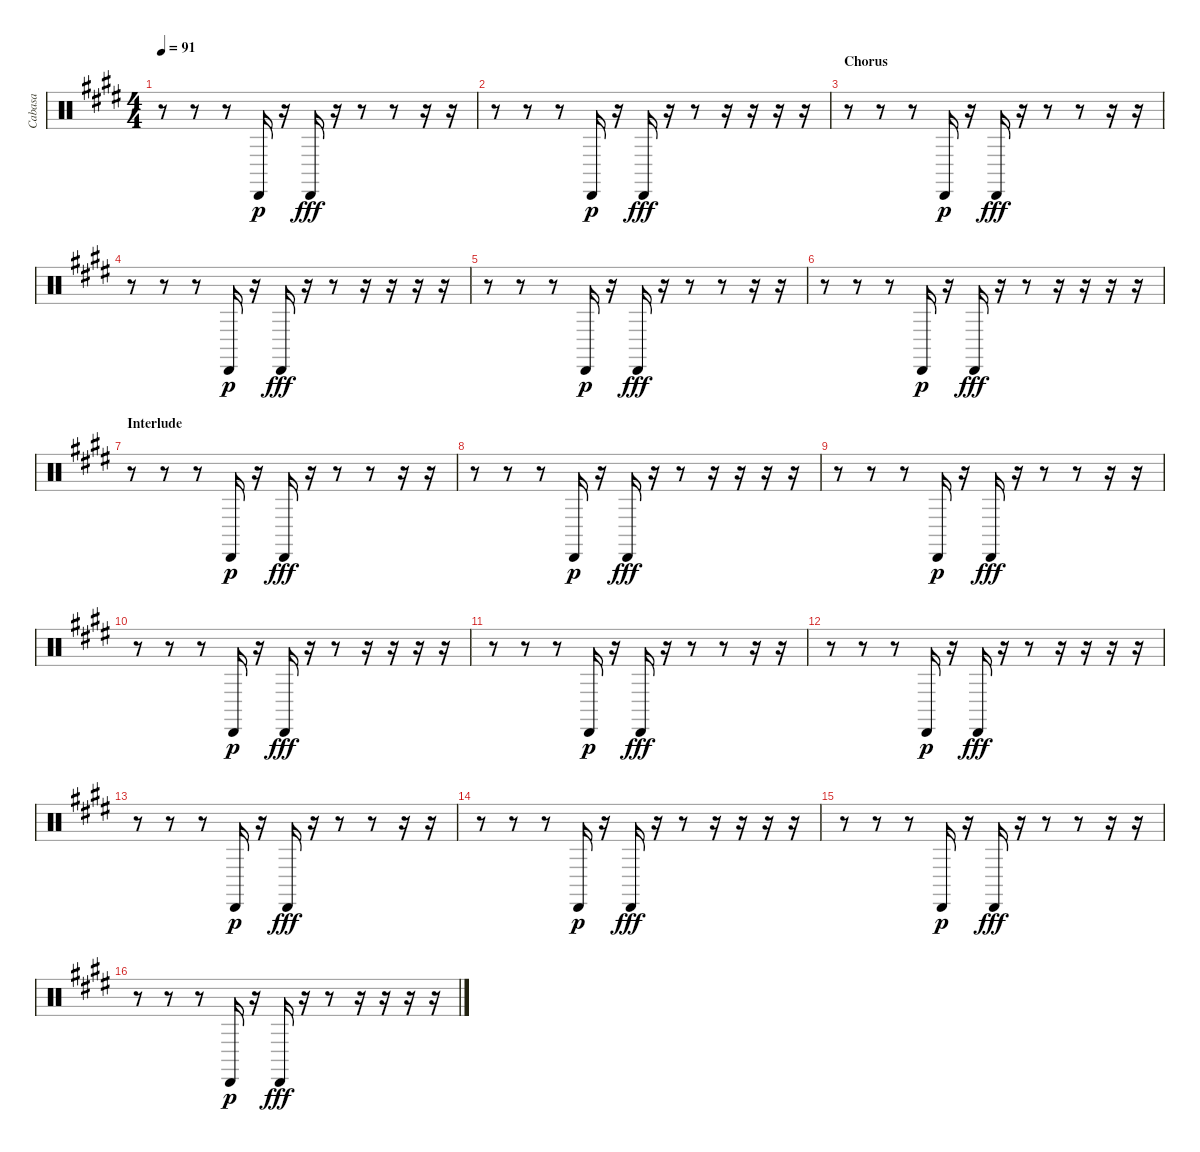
\track ("Cabasa" "Cabasa") {instrument percussion}
\staff {score}
\articulation defaults
\ts (4 4)
\tempo 91
\clef neutral
\ks e
r.8{dy fff} r.8 r.8 "Cabasa (hit)".16{dy p} r.16 "Cabasa (hit)".16{dy fff} r.16 r.8 r.8 r.16 r.16 |
r.8 r.8 r.8 "Cabasa (hit)".16{dy p} r.16 "Cabasa (hit)".16{dy fff} r.16 r.8 r.16 r.16 r.16 r.16 |
\section ("" "Chorus")
r.8 r.8 r.8 "Cabasa (hit)".16{dy p} r.16 "Cabasa (hit)".16{dy fff} r.16 r.8 r.8 r.16 r.16 |
r.8 r.8 r.8 "Cabasa (hit)".16{dy p} r.16 "Cabasa (hit)".16{dy fff} r.16 r.8 r.16 r.16 r.16 r.16 |
r.8 r.8 r.8 "Cabasa (hit)".16{dy p} r.16 "Cabasa (hit)".16{dy fff} r.16 r.8 r.8 r.16 r.16 |
r.8 r.8 r.8 "Cabasa (hit)".16{dy p} r.16 "Cabasa (hit)".16{dy fff} r.16 r.8 r.16 r.16 r.16 r.16 |
\section ("" "Interlude")
r.8 r.8 r.8 "Cabasa (hit)".16{dy p} r.16 "Cabasa (hit)".16{dy fff} r.16 r.8 r.8 r.16 r.16 |
r.8 r.8 r.8 "Cabasa (hit)".16{dy p} r.16 "Cabasa (hit)".16{dy fff} r.16 r.8 r.16 r.16 r.16 r.16 |
r.8 r.8 r.8 "Cabasa (hit)".16{dy p} r.16 "Cabasa (hit)".16{dy fff} r.16 r.8 r.8 r.16 r.16 |
r.8 r.8 r.8 "Cabasa (hit)".16{dy p} r.16 "Cabasa (hit)".16{dy fff} r.16 r.8 r.16 r.16 r.16 r.16 |
r.8 r.8 r.8 "Cabasa (hit)".16{dy p} r.16 "Cabasa (hit)".16{dy fff} r.16 r.8 r.8 r.16 r.16 |
r.8 r.8 r.8 "Cabasa (hit)".16{dy p} r.16 "Cabasa (hit)".16{dy fff} r.16 r.8 r.16 r.16 r.16 r.16 |
r.8 r.8 r.8 "Cabasa (hit)".16{dy p} r.16 "Cabasa (hit)".16{dy fff} r.16 r.8 r.8 r.16 r.16 |
r.8 r.8 r.8 "Cabasa (hit)".16{dy p} r.16 "Cabasa (hit)".16{dy fff} r.16 r.8 r.16 r.16 r.16 r.16 |
r.8 r.8 r.8 "Cabasa (hit)".16{dy p} r.16 "Cabasa (hit)".16{dy fff} r.16 r.8 r.8 r.16 r.16 |
r.8 r.8 r.8 "Cabasa (hit)".16{dy p} r.16 "Cabasa (hit)".16{dy fff} r.16 r.8 r.16 r.16 r.16 r.16
